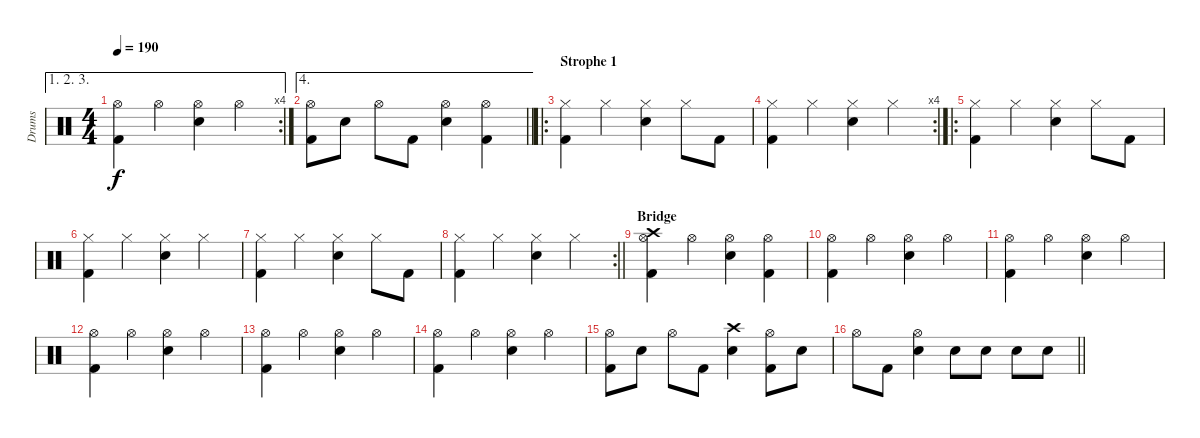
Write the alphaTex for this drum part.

\track ("Drums" "Drums") {instrument percussion}
\staff {score}
\articulation defaults
\ae (1 2 3)
\rc 4
\ts (4 4)
\tempo 190
\clef neutral
\ks c
("Hi-Hat (open)" "Kick (hit) 2").4{dy f} "Hi-Hat (open)".4 ("Hi-Hat (open)" "Snare (hit) 2").4 "Hi-Hat (open)".4 |
\ae 4
\barLineRight lightlight
("Hi-Hat (open)" "Kick (hit) 2").8 "Snare (hit) 2".8 "Hi-Hat (open)".8 "Kick (hit) 2".8 ("Hi-Hat (open)" "Snare (hit) 2").4 ("Hi-Hat (open)" "Kick (hit) 2").4 |
\ro
\section ("" "Strophe 1")
("Hi-Hat (closed)" "Kick (hit) 2").4 "Hi-Hat (closed)".4 ("Hi-Hat (closed)" "Snare (hit) 2").4 "Hi-Hat (closed)".8 "Kick (hit) 2".8 |
\rc 4
("Hi-Hat (closed)" "Kick (hit) 2").4 "Hi-Hat (closed)".4 ("Hi-Hat (closed)" "Snare (hit) 2").4 "Hi-Hat (closed)".4 |
\ro
("Hi-Hat (closed)" "Kick (hit) 2").4 "Hi-Hat (closed)".4 ("Hi-Hat (closed)" "Snare (hit) 2").4 "Hi-Hat (closed)".8 "Kick (hit) 2".8 |
("Hi-Hat (closed)" "Kick (hit) 2").4 "Hi-Hat (closed)".4 ("Hi-Hat (closed)" "Snare (hit) 2").4 "Hi-Hat (closed)".4 |
("Hi-Hat (closed)" "Kick (hit) 2").4 "Hi-Hat (closed)".4 ("Hi-Hat (closed)" "Snare (hit) 2").4 "Hi-Hat (closed)".8 "Kick (hit) 2".8 |
\rc 2
\barLineRight lightlight
("Hi-Hat (closed)" "Kick (hit) 2").4 "Hi-Hat (closed)".4 ("Hi-Hat (closed)" "Snare (hit) 2").4 "Hi-Hat (closed)".4 |
\section ("" "Bridge")
("Crash high (hit)" "Hi-Hat (open)" "Kick (hit) 2").4 "Hi-Hat (open)".4 ("Hi-Hat (open)" "Snare (hit) 2").4 ("Hi-Hat (open)" "Kick (hit) 2").4 |
("Hi-Hat (open)" "Kick (hit) 2").4 "Hi-Hat (open)".4 ("Hi-Hat (open)" "Snare (hit) 2").4 "Hi-Hat (open)".4 |
("Hi-Hat (open)" "Kick (hit) 2").4 "Hi-Hat (open)".4 ("Hi-Hat (open)" "Snare (hit) 2").4 "Hi-Hat (open)".4 |
("Hi-Hat (open)" "Kick (hit) 2").4 "Hi-Hat (open)".4 ("Hi-Hat (open)" "Snare (hit) 2").4 "Hi-Hat (open)".4 |
("Hi-Hat (open)" "Kick (hit) 2").4 "Hi-Hat (open)".4 ("Hi-Hat (open)" "Snare (hit) 2").4 "Hi-Hat (open)".4 |
("Hi-Hat (open)" "Kick (hit) 2").4 "Hi-Hat (open)".4 ("Hi-Hat (open)" "Snare (hit) 2").4 "Hi-Hat (open)".4 |
("Hi-Hat (open)" "Kick (hit) 2").8 "Snare (hit) 2".8 "Hi-Hat (open)".8 "Kick (hit) 2".8 ("Crash high (hit)" "Snare (hit) 2").4 ("Hi-Hat (open)" "Kick (hit) 2").8 "Snare (hit) 2".8 |
\barLineRight lightlight "Hi-Hat (open)".8 "Kick (hit) 2".8
("Hi-Hat (open)" "Snare (hit) 2").4 "Snare (hit) 2".8 "Snare (hit) 2".8 "Snare (hit) 2".8 "Snare (hit) 2".8
